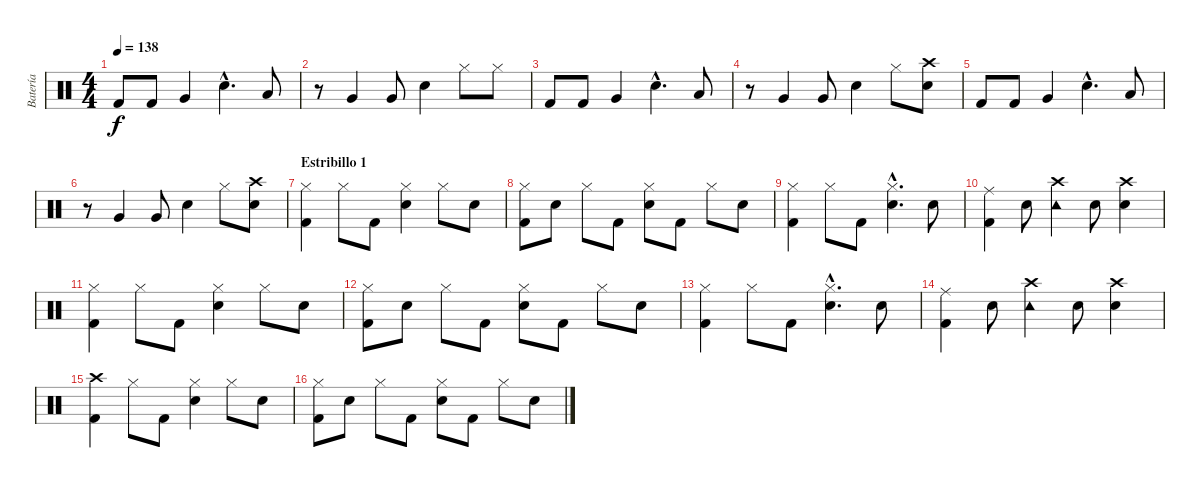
\track ("Batería" "Batería") {instrument percussion}
\staff {score}
\articulation defaults
\ts (4 4)
\tempo 138
\clef neutral
\ks c "Kick (hit) 2".8{dy f} "Kick (hit) 2".8 "Very Low Tom (hit)".4 "Electric Snare (hit)"{hac}.4{d} "Low Tom (hit)".8
|
r.8 "Very Low Tom (hit)".4 "Very Low Tom (hit)".8 "Electric Snare (hit)".4 "Hi-Hat (closed)".8 "Hi-Hat (closed)".8 |
"Kick (hit) 2".8 "Kick (hit) 2".8 "Very Low Tom (hit)".4 "Electric Snare (hit)"{hac}.4{d} "Low Tom (hit)".8 |
r.8 "Very Low Tom (hit)".4 "Very Low Tom (hit)".8 "Electric Snare (hit)".4 "Hi-Hat (closed)".8 ("Electric Snare (hit)" "Crash high (hit)").8 |
"Kick (hit) 2".8 "Kick (hit) 2".8 "Very Low Tom (hit)".4 "Electric Snare (hit)"{hac}.4{d} "Low Tom (hit)".8 |
r.8 "Very Low Tom (hit)".4 "Very Low Tom (hit)".8 "Electric Snare (hit)".4 "Hi-Hat (closed)".8 ("Electric Snare (hit)" "Crash high (hit)").8 |
\section ("" "Estribillo 1")
("Kick (hit) 2" "Hi-Hat (closed)").4 "Hi-Hat (closed)".8 "Kick (hit) 2".8 ("Electric Snare (hit)" "Hi-Hat (closed)").4 "Hi-Hat (closed)".8 "Electric Snare (hit)".8 |
("Kick (hit) 2" "Hi-Hat (closed)").8 "Electric Snare (hit)".8 "Hi-Hat (closed)".8 "Kick (hit) 2".8 ("Electric Snare (hit)" "Hi-Hat (closed)").8 "Kick (hit) 2".8 "Hi-Hat (closed)".8 "Electric Snare (hit)".8 |
("Kick (hit) 2" "Hi-Hat (closed)").4 "Hi-Hat (closed)".8 "Kick (hit) 2".8 ("Electric Snare (hit)"{hac} "Hi-Hat (closed)"{hac}).4{d} "Electric Snare (hit)".8 |
("Kick (hit) 2" "Ride (middle)").4 "Electric Snare (hit)".8 ("Crash high (hit)" "Tambourine (hit)").4 "Electric Snare (hit)".8 ("Electric Snare (hit)" "Crash high (hit)").4 |
("Kick (hit) 2" "Hi-Hat (closed)").4 "Hi-Hat (closed)".8 "Kick (hit) 2".8 ("Electric Snare (hit)" "Hi-Hat (closed)").4 "Hi-Hat (closed)".8 "Electric Snare (hit)".8 |
("Kick (hit) 2" "Hi-Hat (closed)").8 "Electric Snare (hit)".8 "Hi-Hat (closed)".8 "Kick (hit) 2".8 ("Electric Snare (hit)" "Hi-Hat (closed)").8 "Kick (hit) 2".8 "Hi-Hat (closed)".8 "Electric Snare (hit)".8 |
("Kick (hit) 2" "Hi-Hat (closed)").4 "Hi-Hat (closed)".8 "Kick (hit) 2".8 ("Electric Snare (hit)"{hac} "Hi-Hat (closed)"{hac}).4{d} "Electric Snare (hit)".8 |
("Kick (hit) 2" "Ride (middle)").4 "Electric Snare (hit)".8 ("Crash high (hit)" "Tambourine (hit)").4 "Electric Snare (hit)".8 ("Electric Snare (hit)" "Crash high (hit)").4 |
("Kick (hit) 2" "Crash high (hit)").4 "Hi-Hat (closed)".8 "Kick (hit) 2".8 ("Electric Snare (hit)" "Hi-Hat (closed)").4 "Hi-Hat (closed)".8 "Electric Snare (hit)".8 |
("Kick (hit) 2" "Hi-Hat (closed)").8 "Electric Snare (hit)".8 "Hi-Hat (closed)".8 "Kick (hit) 2".8 ("Electric Snare (hit)" "Hi-Hat (closed)").8 "Kick (hit) 2".8 "Hi-Hat (closed)".8 "Electric Snare (hit)".8
